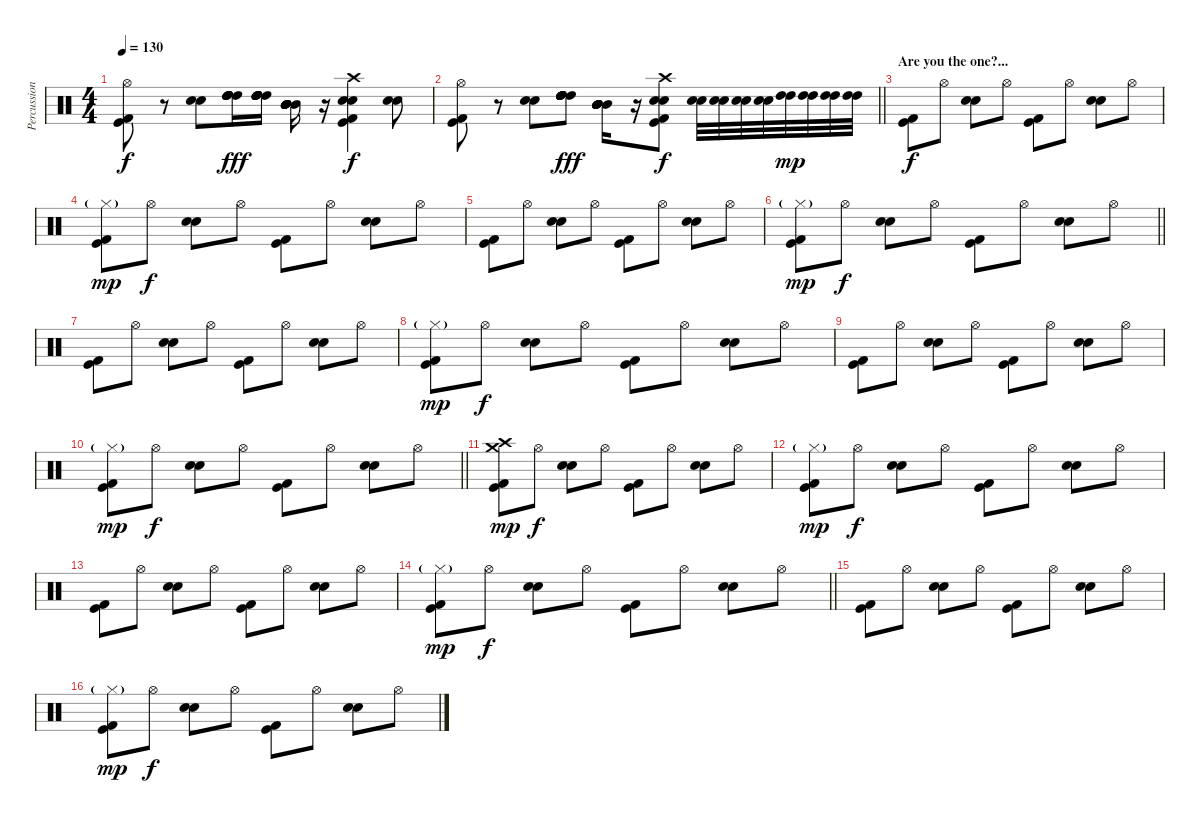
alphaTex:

\track ("Percussion" "Percussion") {instrument percussion}
\staff {score}
\articulation defaults
\ts (4 4)
\tempo 130
\clef neutral
\ks c
("Kick (hit) 2" "Kick (hit)" "Hi-Hat (open)").8{dy f} r.8 ("Snare (hit) 2" "Electric Snare (hit)").8 ("High Tom (hit)" "High Tom (hit)" "High Tom (hit)" "High Tom (hit)" "High Tom (hit)" "High Tom (hit)").16{dy fff} ("High Tom (hit)" "High Tom (hit)" "High Tom (hit)" "High Tom (hit)" "High Tom (hit)" "High Tom (hit)").16 ("Mid Tom (hit)" "Mid Tom (hit)" "Mid Tom (hit)" "Mid Tom (hit)" "Mid Tom (hit)" "Mid Tom (hit)").16 r.16 ("Kick (hit) 2" "Kick (hit)" "Snare (hit) 2" "Electric Snare (hit)" "Crash high (hit)").4{dy f} ("Snare (hit) 2" "Electric Snare (hit)").8 |
\barLineRight lightlight
("Kick (hit) 2" "Kick (hit)" "Hi-Hat (open)").8 r.8 ("Snare (hit) 2" "Electric Snare (hit)").8 ("High Tom (hit)" "High Tom (hit)" "High Tom (hit)" "High Tom (hit)" "High Tom (hit)" "High Tom (hit)").8{dy fff} ("Mid Tom (hit)" "Mid Tom (hit)" "Mid Tom (hit)" "Mid Tom (hit)" "Mid Tom (hit)" "Mid Tom (hit)").16 r.16 ("Kick (hit) 2" "Kick (hit)" "Snare (hit) 2" "Electric Snare (hit)" "Crash high (hit)").8{dy f} ("Snare (hit) 2" "Electric Snare (hit)").32 ("Snare (hit) 2" "Electric Snare (hit)").32 ("Snare (hit) 2" "Electric Snare (hit)").32 ("Snare (hit) 2" "Electric Snare (hit)").32 ("High Tom (hit)" "High Tom (hit)").32{dy mp} ("High Tom (hit)" "High Tom (hit)").32 ("High Tom (hit)" "High Tom (hit)").32 ("High Tom (hit)" "High Tom (hit)").32 |
\section ("" "Are you the one?...")
("Kick (hit) 2" "Kick (hit)").8{dy f} "Hi-Hat (open)".8 ("Electric Snare (hit)" "Snare (hit) 2").8 "Hi-Hat (open)".8 ("Kick (hit) 2" "Kick (hit)").8 "Hi-Hat (open)".8 ("Electric Snare (hit)" "Snare (hit) 2").8 "Hi-Hat (open)".8 |
("Kick (hit) 2" "Kick (hit)" "Hi-Hat (closed)"{g}).8{dy mp} "Hi-Hat (open)".8{dy f} ("Electric Snare (hit)" "Snare (hit) 2").8 "Hi-Hat (open)".8 ("Kick (hit) 2" "Kick (hit)").8 "Hi-Hat (open)".8 ("Electric Snare (hit)" "Snare (hit) 2").8 "Hi-Hat (open)".8 |
("Kick (hit) 2" "Kick (hit)").8 "Hi-Hat (open)".8 ("Electric Snare (hit)" "Snare (hit) 2").8 "Hi-Hat (open)".8 ("Kick (hit) 2" "Kick (hit)").8 "Hi-Hat (open)".8 ("Electric Snare (hit)" "Snare (hit) 2").8 "Hi-Hat (open)".8 |
\barLineRight lightlight
("Kick (hit) 2" "Kick (hit)" "Hi-Hat (closed)"{g}).8{dy mp} "Hi-Hat (open)".8{dy f} ("Electric Snare (hit)" "Snare (hit) 2").8 "Hi-Hat (open)".8 ("Kick (hit) 2" "Kick (hit)").8 "Hi-Hat (open)".8 ("Electric Snare (hit)" "Snare (hit) 2").8 "Hi-Hat (open)".8 |
("Kick (hit) 2" "Kick (hit)").8 "Hi-Hat (open)".8 ("Electric Snare (hit)" "Snare (hit) 2").8 "Hi-Hat (open)".8 ("Kick (hit) 2" "Kick (hit)").8 "Hi-Hat (open)".8 ("Electric Snare (hit)" "Snare (hit) 2").8 "Hi-Hat (open)".8 |
("Kick (hit) 2" "Kick (hit)" "Hi-Hat (closed)"{g}).8{dy mp} "Hi-Hat (open)".8{dy f} ("Electric Snare (hit)" "Snare (hit) 2").8 "Hi-Hat (open)".8 ("Kick (hit) 2" "Kick (hit)").8 "Hi-Hat (open)".8 ("Electric Snare (hit)" "Snare (hit) 2").8 "Hi-Hat (open)".8 |
("Kick (hit) 2" "Kick (hit)").8 "Hi-Hat (open)".8 ("Electric Snare (hit)" "Snare (hit) 2").8 "Hi-Hat (open)".8 ("Kick (hit) 2" "Kick (hit)").8 "Hi-Hat (open)".8 ("Electric Snare (hit)" "Snare (hit) 2").8 "Hi-Hat (open)".8 |
\barLineRight lightlight
("Kick (hit) 2" "Kick (hit)" "Hi-Hat (closed)"{g}).8{dy mp} "Hi-Hat (open)".8{dy f} ("Electric Snare (hit)" "Snare (hit) 2").8 "Hi-Hat (open)".8 ("Kick (hit) 2" "Kick (hit)").8 "Hi-Hat (open)".8 ("Electric Snare (hit)" "Snare (hit) 2").8 "Hi-Hat (open)".8 |
("Kick (hit) 2" "Kick (hit)" "Crash medium (hit)" "Crash high (hit)").8{dy mp} "Hi-Hat (open)".8{dy f} ("Electric Snare (hit)" "Snare (hit) 2").8 "Hi-Hat (open)".8 ("Kick (hit) 2" "Kick (hit)").8 "Hi-Hat (open)".8 ("Electric Snare (hit)" "Snare (hit) 2").8 "Hi-Hat (open)".8 |
("Kick (hit) 2" "Kick (hit)" "Hi-Hat (closed)"{g}).8{dy mp} "Hi-Hat (open)".8{dy f} ("Electric Snare (hit)" "Snare (hit) 2").8 "Hi-Hat (open)".8 ("Kick (hit) 2" "Kick (hit)").8 "Hi-Hat (open)".8 ("Electric Snare (hit)" "Snare (hit) 2").8 "Hi-Hat (open)".8 |
("Kick (hit) 2" "Kick (hit)").8 "Hi-Hat (open)".8 ("Electric Snare (hit)" "Snare (hit) 2").8 "Hi-Hat (open)".8 ("Kick (hit) 2" "Kick (hit)").8 "Hi-Hat (open)".8 ("Electric Snare (hit)" "Snare (hit) 2").8 "Hi-Hat (open)".8 |
\barLineRight lightlight
("Kick (hit) 2" "Kick (hit)" "Hi-Hat (closed)"{g}).8{dy mp} "Hi-Hat (open)".8{dy f} ("Electric Snare (hit)" "Snare (hit) 2").8 "Hi-Hat (open)".8 ("Kick (hit) 2" "Kick (hit)").8 "Hi-Hat (open)".8 ("Electric Snare (hit)" "Snare (hit) 2").8 "Hi-Hat (open)".8 |
("Kick (hit) 2" "Kick (hit)").8 "Hi-Hat (open)".8 ("Electric Snare (hit)" "Snare (hit) 2").8 "Hi-Hat (open)".8 ("Kick (hit) 2" "Kick (hit)").8 "Hi-Hat (open)".8 ("Electric Snare (hit)" "Snare (hit) 2").8 "Hi-Hat (open)".8 |
("Kick (hit) 2" "Kick (hit)" "Hi-Hat (closed)"{g}).8{dy mp} "Hi-Hat (open)".8{dy f} ("Electric Snare (hit)" "Snare (hit) 2").8 "Hi-Hat (open)".8 ("Kick (hit) 2" "Kick (hit)").8 "Hi-Hat (open)".8 ("Electric Snare (hit)" "Snare (hit) 2").8 "Hi-Hat (open)".8
